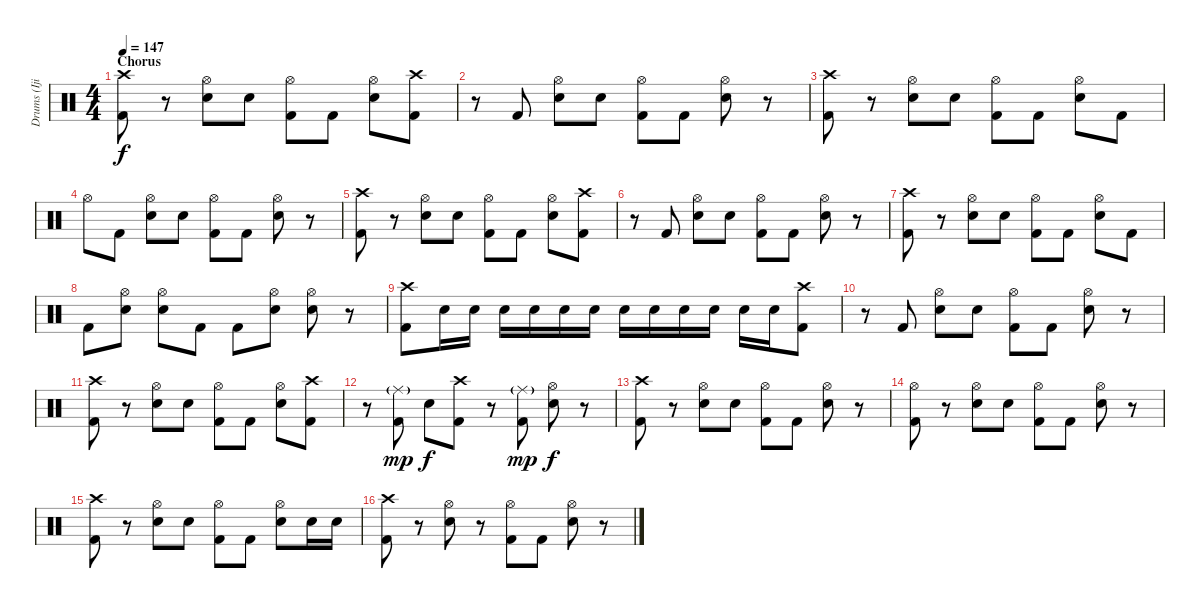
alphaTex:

\track ("Drums (Ijichi)" "Drums (Iji") {instrument percussion}
\staff {score}
\articulation defaults
\ts (4 4)
\section ("" "Chorus")
\tempo 147
\clef neutral
\ks c
("Crash high (hit)" "Kick (hit) 2").8{dy f} r.8 ("Hi-Hat (open)" "Snare (hit) 2").8 "Snare (hit) 2".8 ("Hi-Hat (open)" "Kick (hit) 2").8 "Kick (hit) 2".8 ("Hi-Hat (open)" "Snare (hit) 2").8 ("Crash high (hit)" "Kick (hit) 2").8 |
r.8 "Kick (hit) 2".8 ("Hi-Hat (open)" "Snare (hit) 2").8 "Snare (hit) 2".8 ("Hi-Hat (open)" "Kick (hit) 2").8 "Kick (hit) 2".8 ("Hi-Hat (open)" "Snare (hit) 2").8 r.8 |
("Crash high (hit)" "Kick (hit) 2").8 r.8 ("Hi-Hat (open)" "Snare (hit) 2").8 "Snare (hit) 2".8 ("Hi-Hat (open)" "Kick (hit) 2").8 "Kick (hit) 2".8 ("Hi-Hat (open)" "Snare (hit) 2").8 "Kick (hit) 2".8 |
"Hi-Hat (open)".8 "Kick (hit) 2".8 ("Hi-Hat (open)" "Snare (hit) 2").8 "Snare (hit) 2".8 ("Hi-Hat (open)" "Kick (hit) 2").8 "Kick (hit) 2".8 ("Hi-Hat (open)" "Snare (hit) 2").8 r.8 |
("Crash high (hit)" "Kick (hit) 2").8 r.8 ("Hi-Hat (open)" "Snare (hit) 2").8 "Snare (hit) 2".8 ("Hi-Hat (open)" "Kick (hit) 2").8 "Kick (hit) 2".8 ("Hi-Hat (open)" "Snare (hit) 2").8 ("Crash high (hit)" "Kick (hit) 2").8 |
r.8 "Kick (hit) 2".8 ("Hi-Hat (open)" "Snare (hit) 2").8 "Snare (hit) 2".8 ("Hi-Hat (open)" "Kick (hit) 2").8 "Kick (hit) 2".8 ("Hi-Hat (open)" "Snare (hit) 2").8 r.8 |
("Crash high (hit)" "Kick (hit) 2").8 r.8 ("Hi-Hat (open)" "Snare (hit) 2").8 "Snare (hit) 2".8 ("Hi-Hat (open)" "Kick (hit) 2").8 "Kick (hit) 2".8 ("Hi-Hat (open)" "Snare (hit) 2").8 "Kick (hit) 2".8 |
"Kick (hit) 2".8 ("Hi-Hat (open)" "Snare (hit) 2").8 ("Hi-Hat (open)" "Snare (hit) 2").8 "Kick (hit) 2".8 "Kick (hit) 2".8 ("Hi-Hat (open)" "Snare (hit) 2").8 ("Hi-Hat (open)" "Snare (hit) 2").8 r.8 |
("Crash high (hit)" "Kick (hit) 2").8 "Snare (hit) 2".16 "Snare (hit) 2".16 "Snare (hit) 2".16 "Snare (hit) 2".16 "Snare (hit) 2".16 "Snare (hit) 2".16 "Snare (hit) 2".16 "Snare (hit) 2".16 "Snare (hit) 2".16 "Snare (hit) 2".16 "Snare (hit) 2".16 "Snare (hit) 2".16 ("Crash high (hit)" "Kick (hit) 2").8 |
r.8 "Kick (hit) 2".8 ("Hi-Hat (open)" "Snare (hit) 2").8 "Snare (hit) 2".8 ("Hi-Hat (open)" "Kick (hit) 2").8 "Kick (hit) 2".8 ("Hi-Hat (open)" "Snare (hit) 2").8 r.8 |
("Crash high (hit)" "Kick (hit) 2").8 r.8 ("Hi-Hat (open)" "Snare (hit) 2").8 "Snare (hit) 2".8 ("Hi-Hat (open)" "Kick (hit) 2").8 "Kick (hit) 2".8 ("Hi-Hat (open)" "Snare (hit) 2").8 ("Crash high (hit)" "Kick (hit) 2").8 |
r.8 ("Ride (middle)"{g} "Kick (hit) 2").8{dy mp} "Snare (hit) 2".8{dy f} ("Crash high (hit)" "Kick (hit) 2").8 r.8 ("Ride (middle)"{g} "Kick (hit) 2").8{dy mp} ("Hi-Hat (open)" "Snare (hit) 2").8{dy f} r.8 |
("Crash high (hit)" "Kick (hit) 2").8 r.8 ("Hi-Hat (open)" "Snare (hit) 2").8 "Snare (hit) 2".8 ("Hi-Hat (open)" "Kick (hit) 2").8 "Kick (hit) 2".8 ("Hi-Hat (open)" "Snare (hit) 2").8 r.8 |
("Hi-Hat (open)" "Kick (hit) 2").8 r.8 ("Hi-Hat (open)" "Snare (hit) 2").8 "Snare (hit) 2".8 ("Hi-Hat (open)" "Kick (hit) 2").8 "Kick (hit) 2".8 ("Hi-Hat (open)" "Snare (hit) 2").8 r.8 |
("Crash high (hit)" "Kick (hit) 2").8 r.8 ("Hi-Hat (open)" "Snare (hit) 2").8 "Snare (hit) 2".8 ("Hi-Hat (open)" "Kick (hit) 2").8 "Kick (hit) 2".8 ("Hi-Hat (open)" "Snare (hit) 2").8 "Snare (hit) 2".16 "Snare (hit) 2".16 |
("Crash high (hit)" "Kick (hit) 2").8 r.8 ("Hi-Hat (open)" "Snare (hit) 2").8 r.8 ("Hi-Hat (open)" "Kick (hit) 2").8 "Kick (hit) 2".8 ("Hi-Hat (open)" "Snare (hit) 2").8 r.8
